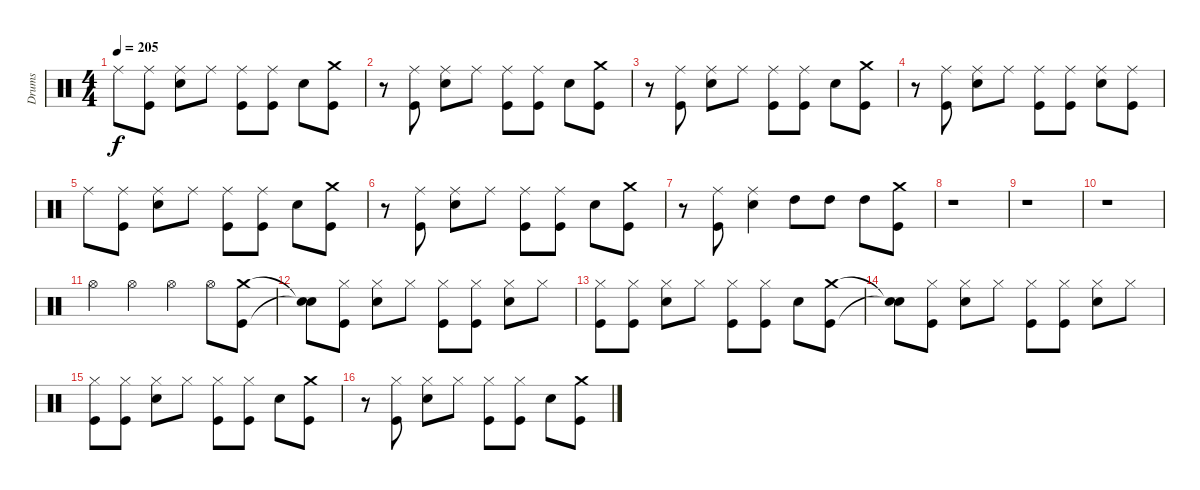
\track ("Drums" "Drums") {instrument percussion}
\staff {score}
\articulation defaults
\ts (4 4)
\tempo 205
\clef neutral
\ks c "Ride (middle)".8{dy f}
("Ride (middle)" "Kick (hit)").8 ("Ride (middle)" "Electric Snare (hit)").8 "Ride (middle)".8 ("Ride (middle)" "Kick (hit)").8 ("Ride (middle)" "Kick (hit)").8 "Electric Snare (hit)".8 ("Crash medium (hit)" "Kick (hit)").8 |
r.8 ("Ride (middle)" "Kick (hit)").8 ("Ride (middle)" "Electric Snare (hit)").8 "Ride (middle)".8 ("Ride (middle)" "Kick (hit)").8 ("Ride (middle)" "Kick (hit)").8 "Electric Snare (hit)".8 ("Crash medium (hit)" "Kick (hit)").8 |
r.8 ("Ride (middle)" "Kick (hit)").8 ("Ride (middle)" "Electric Snare (hit)").8 "Ride (middle)".8 ("Ride (middle)" "Kick (hit)").8 ("Ride (middle)" "Kick (hit)").8 "Electric Snare (hit)".8 ("Crash medium (hit)" "Kick (hit)").8 |
r.8 ("Ride (middle)" "Kick (hit)").8 ("Ride (middle)" "Electric Snare (hit)").8 "Ride (middle)".8 ("Ride (middle)" "Kick (hit)").8 ("Ride (middle)" "Kick (hit)").8 ("Ride (middle)" "Electric Snare (hit)").8 ("Ride (middle)" "Kick (hit)").8 |
"Ride (middle)".8 ("Ride (middle)" "Kick (hit)").8 ("Ride (middle)" "Electric Snare (hit)").8 "Ride (middle)".8 ("Ride (middle)" "Kick (hit)").8 ("Ride (middle)" "Kick (hit)").8 "Electric Snare (hit)".8 ("Crash medium (hit)" "Kick (hit)").8 |
r.8 ("Ride (middle)" "Kick (hit)").8 ("Ride (middle)" "Electric Snare (hit)").8 "Ride (middle)".8 ("Ride (middle)" "Kick (hit)").8 ("Ride (middle)" "Kick (hit)").8 "Electric Snare (hit)".8 ("Crash medium (hit)" "Kick (hit)").8 |
r.8 ("Ride (middle)" "Kick (hit)").8 ("Ride (middle)" "Electric Snare (hit)").4 "High Tom (hit)".8 "High Tom (hit)".8 "High Tom (hit)".8 ("Crash medium (hit)" "Kick (hit)").8 |
r.1 |
r.1 |
r.1 |
"Hi-Hat (open)".4 "Hi-Hat (open)".4 "Hi-Hat (open)".4 "Hi-Hat (open)".8 ("Crash medium (hit)" "Kick (hit)").8 |
("Snare (hit)"{t} "Snare (hit)"{t}).8 ("Hi-Hat (closed)" "Kick (hit)").8 ("Hi-Hat (closed)" "Electric Snare (hit)").8 "Hi-Hat (closed)".8 ("Hi-Hat (closed)" "Kick (hit)").8 ("Hi-Hat (closed)" "Kick (hit)").8 ("Hi-Hat (closed)" "Electric Snare (hit)").8 "Hi-Hat (closed)".8 |
("Hi-Hat (closed)" "Kick (hit)").8 ("Hi-Hat (closed)" "Kick (hit)").8 ("Hi-Hat (closed)" "Electric Snare (hit)").8 "Hi-Hat (closed)".8 ("Hi-Hat (closed)" "Kick (hit)").8 ("Hi-Hat (closed)" "Kick (hit)").8 "Electric Snare (hit)".8 ("Crash medium (hit)" "Kick (hit)").8 |
("Snare (hit)"{t} "Snare (hit)"{t}).8 ("Hi-Hat (closed)" "Kick (hit)").8 ("Hi-Hat (closed)" "Electric Snare (hit)").8 "Hi-Hat (closed)".8 ("Hi-Hat (closed)" "Kick (hit)").8 ("Hi-Hat (closed)" "Kick (hit)").8 ("Hi-Hat (closed)" "Electric Snare (hit)").8 "Hi-Hat (closed)".8 |
("Hi-Hat (closed)" "Kick (hit)").8 ("Hi-Hat (closed)" "Kick (hit)").8 ("Hi-Hat (closed)" "Electric Snare (hit)").8 "Hi-Hat (closed)".8 ("Hi-Hat (closed)" "Kick (hit)").8 ("Hi-Hat (closed)" "Kick (hit)").8 "Electric Snare (hit)".8 ("Crash medium (hit)" "Kick (hit)").8 |
r.8 ("Hi-Hat (closed)" "Kick (hit)").8 ("Hi-Hat (closed)" "Electric Snare (hit)").8 "Hi-Hat (closed)".8 ("Hi-Hat (closed)" "Kick (hit)").8 ("Hi-Hat (closed)" "Kick (hit)").8 "Electric Snare (hit)".8 ("Crash medium (hit)" "Kick (hit)").8
